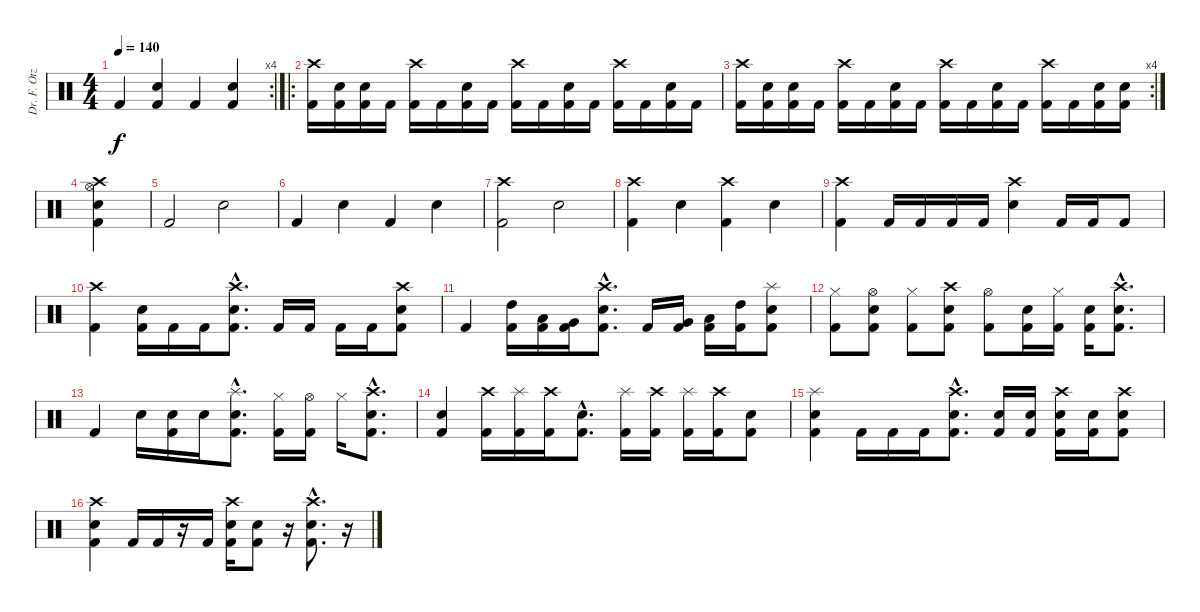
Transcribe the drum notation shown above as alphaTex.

\track ("Dr. F. Otze" "Dr. F. Otz") {instrument percussion}
\staff {score}
\articulation defaults
\rc 4
\ts (4 4)
\tempo 140
\clef neutral
\ks c "Kick (hit) 2".4{dy f}
("Snare (hit) 2" "Kick (hit) 2").4 "Kick (hit) 2".4 ("Snare (hit) 2" "Kick (hit) 2").4 |
\ro
("Crash high (hit)" "Kick (hit) 2").16 ("Snare (hit) 2" "Kick (hit) 2").16 ("Electric Snare (hit)" "Kick (hit) 2").16 "Kick (hit) 2".16 ("Crash high (hit)" "Kick (hit) 2").16 "Kick (hit) 2".16 ("Snare (hit) 2" "Kick (hit) 2").16 "Kick (hit) 2".16 ("Crash high (hit)" "Kick (hit) 2").16 "Kick (hit) 2".16 ("Snare (hit) 2" "Kick (hit) 2").16 "Kick (hit) 2".16 ("Crash high (hit)" "Kick (hit) 2").16 "Kick (hit) 2".16 ("Snare (hit) 2" "Kick (hit) 2").16 "Kick (hit) 2".16 |
\rc 4
("Crash high (hit)" "Kick (hit) 2").16 ("Snare (hit) 2" "Kick (hit) 2").16 ("Electric Snare (hit)" "Kick (hit) 2").16 "Kick (hit) 2".16 ("Crash high (hit)" "Kick (hit) 2").16 "Kick (hit) 2".16 ("Snare (hit) 2" "Kick (hit) 2").16 "Kick (hit) 2".16 ("Crash high (hit)" "Kick (hit) 2").16 "Kick (hit) 2".16 ("Snare (hit) 2" "Kick (hit) 2").16 "Kick (hit) 2".16 ("Crash high (hit)" "Kick (hit) 2").16 "Kick (hit) 2".16 ("Snare (hit) 2" "Kick (hit) 2").16 ("Electric Snare (hit)" "Kick (hit) 2").16 |
("Hi-Hat (open)" "Crash high (hit)" "Snare (hit) 2" "Kick (hit) 2").4 |
"Kick (hit) 2".2 "Snare (hit) 2".2 |
"Kick (hit) 2".4 "Snare (hit) 2".4 "Kick (hit) 2".4 "Snare (hit) 2".4 |
("Crash high (hit)" "Kick (hit) 2").2 "Snare (hit) 2".2 |
("Crash high (hit)" "Kick (hit) 2").4 "Snare (hit) 2".4 ("Crash high (hit)" "Kick (hit) 2").4 "Snare (hit) 2".4 |
("Crash high (hit)" "Kick (hit) 2").4 "Kick (hit) 2".16 "Kick (hit) 2".16 "Kick (hit) 2".16 "Kick (hit) 2".16 ("Crash high (hit)" "Snare (hit) 2").4 "Kick (hit) 2".16 "Kick (hit) 2".16 "Kick (hit) 2".8 |
("Crash high (hit)" "Kick (hit) 2").4 ("Snare (hit) 2" "Kick (hit) 2").16 "Kick (hit) 2".16 "Kick (hit) 2".16 ("Crash high (hit)"{hac} "Snare (hit) 2"{hac} "Kick (hit) 2"{hac}).8{d} "Kick (hit) 2".16 "Kick (hit) 2".16 "Kick (hit) 2".16 "Kick (hit) 2".16 ("Crash high (hit)" "Snare (hit) 2" "Kick (hit) 2").8 |
"Kick (hit) 2".4 ("High Tom (hit)" "Kick (hit) 2").16 ("Low Tom (hit)" "Kick (hit) 2").16 ("Very Low Tom (hit)" "Kick (hit) 2").16 ("Crash high (hit)"{hac} "Snare (hit) 2"{hac} "Kick (hit) 2"{hac}).8{d} "Kick (hit) 2".16 ("Very Low Tom (hit)" "Kick (hit) 2").16 ("Low Tom (hit)" "Kick (hit) 2").16 ("High Tom (hit)" "Kick (hit) 2").16 ("Splash (hit)" "Snare (hit) 2" "Kick (hit) 2").8 |
("Hi-Hat (closed)" "Kick (hit) 2").8 ("Hi-Hat (open)" "Snare (hit) 2" "Kick (hit) 2").8 ("Hi-Hat (closed)" "Kick (hit) 2").8 ("Crash high (hit)" "Snare (hit) 2" "Kick (hit) 2").8 ("Hi-Hat (open)" "Kick (hit) 2").8 ("Snare (hit) 2" "Kick (hit) 2").16 ("Hi-Hat (closed)" "Kick (hit) 2").16 ("Snare (hit) 2" "Kick (hit) 2").16 ("Crash high (hit)"{hac} "Snare (hit) 2"{hac} "Kick (hit) 2"{hac}).8{d} |
"Kick (hit) 2".4 "Snare (hit) 2".16 ("Snare (hit) 2" "Kick (hit) 2").16 "Snare (hit) 2".16 ("Splash (hit)"{hac} "Snare (hit) 2"{hac} "Kick (hit) 2"{hac}).8{d} ("Hi-Hat (closed)" "Kick (hit) 2").16 ("Hi-Hat (open)" "Kick (hit) 2").16 "Hi-Hat (closed)".16 ("Crash high (hit)"{hac} "Snare (hit) 2"{hac} "Kick (hit) 2"{hac}).8{d} |
("Snare (hit) 2" "Kick (hit) 2").4 ("Crash high (hit)" "Kick (hit) 2").16 ("Splash (hit)" "Kick (hit) 2").16 ("Crash high (hit)" "Kick (hit) 2").16 ("Snare (hit) 2"{hac} "Kick (hit) 2"{hac}).8{d} ("Splash (hit)" "Kick (hit) 2").16 ("Crash high (hit)" "Kick (hit) 2").16 ("Splash (hit)" "Kick (hit) 2").16 ("Crash high (hit)" "Kick (hit) 2").16 ("Snare (hit) 2" "Kick (hit) 2").8 |
("Splash (hit)" "Snare (hit) 2" "Kick (hit) 2").4 "Kick (hit) 2".16 "Kick (hit) 2".16 "Kick (hit) 2".16 ("Crash high (hit)"{hac} "Snare (hit) 2"{hac} "Kick (hit) 2"{hac}).8{d} ("Snare (hit) 2" "Kick (hit) 2").16 ("Snare (hit) 2" "Kick (hit) 2").16 ("Crash high (hit)" "Snare (hit) 2" "Kick (hit) 2").16 ("Snare (hit) 2" "Kick (hit) 2").16 ("Crash high (hit)" "Snare (hit) 2" "Kick (hit) 2").8 |
("Crash high (hit)" "Snare (hit) 2" "Kick (hit) 2").4 "Kick (hit) 2".16 "Kick (hit) 2".16 r.16 "Kick (hit) 2".16 ("Crash high (hit)" "Snare (hit) 2" "Kick (hit) 2").16 ("Snare (hit) 2" "Kick (hit) 2").8 r.16 ("Crash high (hit)"{hac} "Snare (hit) 2"{hac} "Kick (hit) 2").8{d} r.16
